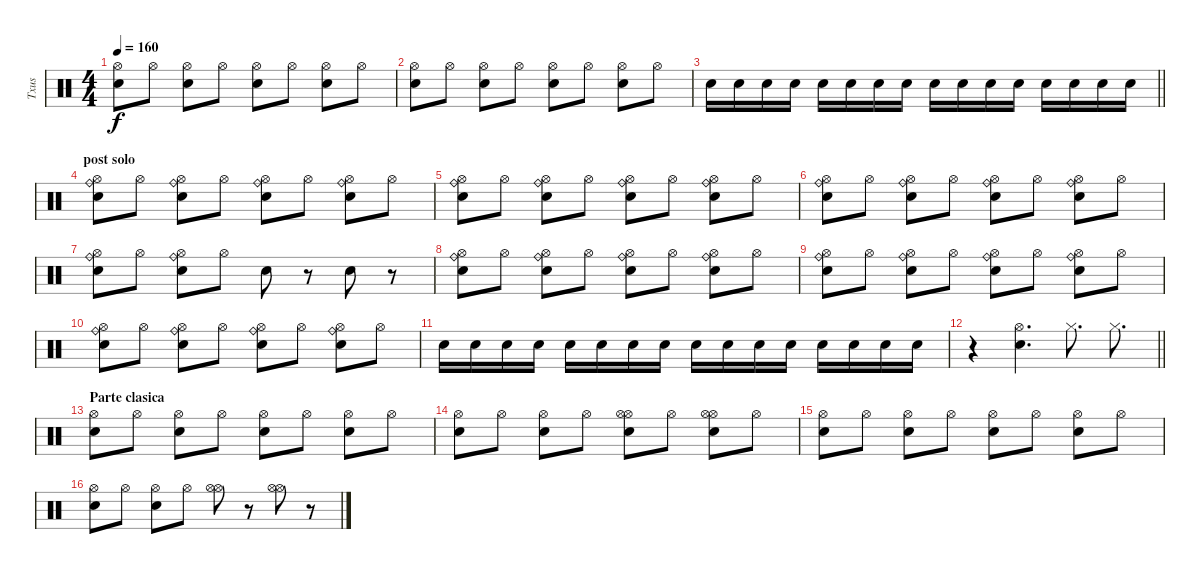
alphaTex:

\track ("Txus" "Txus") {instrument percussion}
\staff {score}
\articulation defaults
\ts (4 4)
\tempo 160
\clef neutral
\ks c
("Snare (hit) 2" "Hi-Hat (open)").8{dy f} "Hi-Hat (open)".8 ("Snare (hit) 2" "Hi-Hat (open)").8 "Hi-Hat (open)".8 ("Snare (hit) 2" "Hi-Hat (open)").8 "Hi-Hat (open)".8 ("Snare (hit) 2" "Hi-Hat (open)").8 "Hi-Hat (open)".8 |
("Snare (hit) 2" "Hi-Hat (open)").8 "Hi-Hat (open)".8 ("Snare (hit) 2" "Hi-Hat (open)").8 "Hi-Hat (open)".8 ("Snare (hit) 2" "Hi-Hat (open)").8 "Hi-Hat (open)".8 ("Snare (hit) 2" "Hi-Hat (open)").8 "Hi-Hat (open)".8 |
\barLineRight lightlight "Snare (hit) 2".16 "Snare (hit) 2".16 "Snare (hit) 2".16 "Snare (hit) 2".16 "Snare (hit) 2".16 "Snare (hit) 2".16 "Snare (hit) 2".16 "Snare (hit) 2".16 "Snare (hit) 2".16 "Snare (hit) 2".16 "Snare (hit) 2".16 "Snare (hit) 2".16 "Snare (hit) 2".16 "Snare (hit) 2".16 "Snare (hit) 2".16 "Snare (hit) 2".16
|
\section ("" "post solo")
("Snare (hit) 2" "Hi-Hat (open)" "Ride (bell)").8 "Hi-Hat (open)".8 ("Snare (hit) 2" "Hi-Hat (open)" "Ride (bell)").8 "Hi-Hat (open)".8 ("Snare (hit) 2" "Hi-Hat (open)" "Ride (bell)").8 "Hi-Hat (open)".8 ("Snare (hit) 2" "Hi-Hat (open)" "Ride (bell)").8 "Hi-Hat (open)".8 |
("Snare (hit) 2" "Hi-Hat (open)" "Ride (bell)").8 "Hi-Hat (open)".8 ("Snare (hit) 2" "Hi-Hat (open)" "Ride (bell)").8 "Hi-Hat (open)".8 ("Snare (hit) 2" "Hi-Hat (open)" "Ride (bell)").8 "Hi-Hat (open)".8 ("Snare (hit) 2" "Hi-Hat (open)" "Ride (bell)").8 "Hi-Hat (open)".8 |
("Snare (hit) 2" "Hi-Hat (open)" "Ride (bell)").8 "Hi-Hat (open)".8 ("Snare (hit) 2" "Hi-Hat (open)" "Ride (bell)").8 "Hi-Hat (open)".8 ("Snare (hit) 2" "Hi-Hat (open)" "Ride (bell)").8 "Hi-Hat (open)".8 ("Snare (hit) 2" "Hi-Hat (open)" "Ride (bell)").8 "Hi-Hat (open)".8 |
("Snare (hit) 2" "Hi-Hat (open)" "Ride (bell)").8 "Hi-Hat (open)".8 ("Snare (hit) 2" "Hi-Hat (open)" "Ride (bell)").8 "Hi-Hat (open)".8 "Snare (hit) 2".8 r.8 "Snare (hit) 2".8 r.8 |
("Snare (hit) 2" "Hi-Hat (open)" "Ride (bell)").8 "Hi-Hat (open)".8 ("Snare (hit) 2" "Hi-Hat (open)" "Ride (bell)").8 "Hi-Hat (open)".8 ("Snare (hit) 2" "Hi-Hat (open)" "Ride (bell)").8 "Hi-Hat (open)".8 ("Snare (hit) 2" "Hi-Hat (open)" "Ride (bell)").8 "Hi-Hat (open)".8 |
("Snare (hit) 2" "Hi-Hat (open)" "Ride (bell)").8 "Hi-Hat (open)".8 ("Snare (hit) 2" "Hi-Hat (open)" "Ride (bell)").8 "Hi-Hat (open)".8 ("Snare (hit) 2" "Hi-Hat (open)" "Ride (bell)").8 "Hi-Hat (open)".8 ("Snare (hit) 2" "Hi-Hat (open)" "Ride (bell)").8 "Hi-Hat (open)".8 |
("Snare (hit) 2" "Hi-Hat (open)" "Ride (bell)").8 "Hi-Hat (open)".8 ("Snare (hit) 2" "Hi-Hat (open)" "Ride (bell)").8 "Hi-Hat (open)".8 ("Snare (hit) 2" "Hi-Hat (open)" "Ride (bell)").8 "Hi-Hat (open)".8 ("Snare (hit) 2" "Hi-Hat (open)" "Ride (bell)").8 "Hi-Hat (open)".8 |
"Snare (hit) 2".16 "Snare (hit) 2".16 "Snare (hit) 2".16 "Snare (hit) 2".16 "Snare (hit) 2".16 "Snare (hit) 2".16 "Snare (hit) 2".16 "Snare (hit) 2".16 "Snare (hit) 2".16 "Snare (hit) 2".16 "Snare (hit) 2".16 "Snare (hit) 2".16 "Snare (hit) 2".16 "Snare (hit) 2".16 "Snare (hit) 2".16 "Snare (hit) 2".16 |
\barLineRight lightlight
r.4 ("Hi-Hat (open)" "Snare (hit) 2").4{d} "Hi-Hat (closed)".8{d} "Hi-Hat (closed)".8{d} |
\section ("" "Parte clasica")
("Hi-Hat (open)" "Snare (hit) 2").8 "Hi-Hat (open)".8 ("Hi-Hat (open)" "Snare (hit) 2").8 "Hi-Hat (open)".8 ("Hi-Hat (open)" "Snare (hit) 2").8 "Hi-Hat (open)".8 ("Hi-Hat (open)" "Snare (hit) 2").8 "Hi-Hat (open)".8 |
("Hi-Hat (open)" "Snare (hit) 2").8 "Hi-Hat (open)".8 ("Hi-Hat (open)" "Snare (hit) 2").8 "Hi-Hat (open)".8 ("Hi-Hat (open)" "Snare (hit) 2" "Hi-Hat (open)").8 "Hi-Hat (open)".8 ("Hi-Hat (open)" "Snare (hit) 2" "Hi-Hat (open)").8 "Hi-Hat (open)".8 |
("Hi-Hat (open)" "Snare (hit) 2").8 "Hi-Hat (open)".8 ("Hi-Hat (open)" "Snare (hit) 2").8 "Hi-Hat (open)".8 ("Hi-Hat (open)" "Snare (hit) 2").8 "Hi-Hat (open)".8 ("Hi-Hat (open)" "Snare (hit) 2").8 "Hi-Hat (open)".8 |
("Hi-Hat (open)" "Snare (hit) 2").8 "Hi-Hat (open)".8 ("Hi-Hat (open)" "Snare (hit) 2").8 "Hi-Hat (open)".8 ("Hi-Hat (open)" "Hi-Hat (open)").8 r.8 ("Hi-Hat (open)" "Hi-Hat (open)").8 r.8
